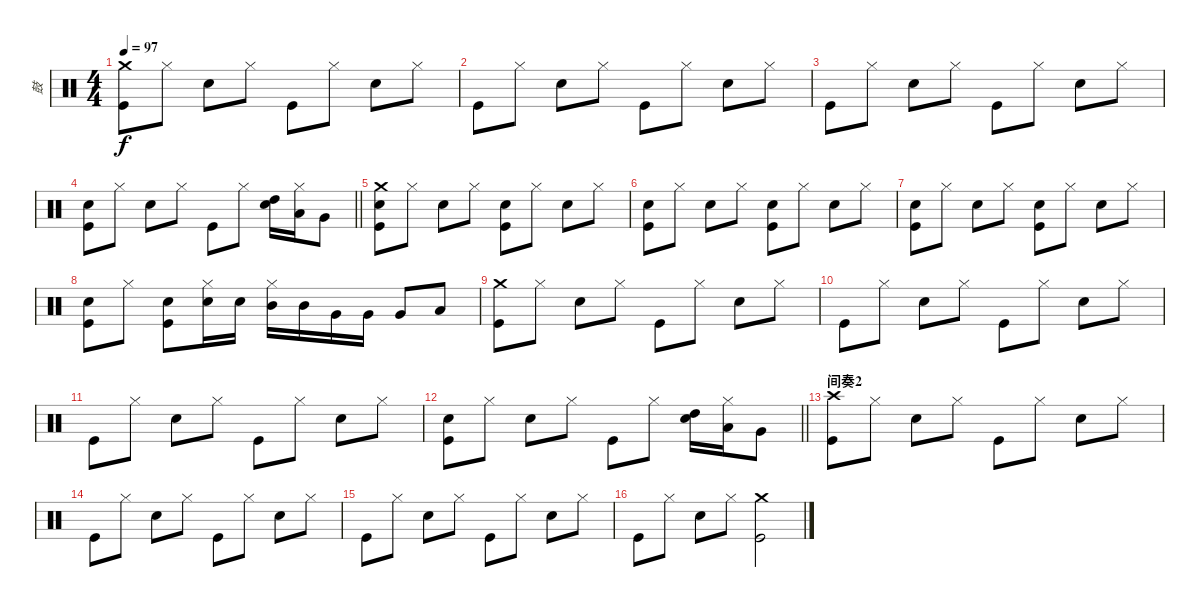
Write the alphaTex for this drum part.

\track ("鼓" "鼓") {instrument percussion}
\staff {score}
\articulation defaults
\ts (4 4)
\tempo 97
\clef neutral
\ks c
("Crash medium (hit)" "Kick (hit)").8{dy f} "Hi-Hat (closed)".8 "Electric Snare (hit)".8 "Hi-Hat (closed)".8 "Kick (hit)".8 "Hi-Hat (closed)".8 "Electric Snare (hit)".8 "Hi-Hat (closed)".8 |
"Kick (hit)".8 "Hi-Hat (closed)".8 "Electric Snare (hit)".8 "Hi-Hat (closed)".8 "Kick (hit)".8 "Hi-Hat (closed)".8 "Electric Snare (hit)".8 "Hi-Hat (closed)".8 |
"Kick (hit)".8 "Hi-Hat (closed)".8 "Electric Snare (hit)".8 "Hi-Hat (closed)".8 "Kick (hit)".8 "Hi-Hat (closed)".8 "Electric Snare (hit)".8 "Hi-Hat (closed)".8 |
\barLineRight lightlight
("Electric Snare (hit)" "Kick (hit)").8 "Hi-Hat (closed)".8 "Electric Snare (hit)".8 "Hi-Hat (closed)".8 "Kick (hit)".8 "Hi-Hat (closed)".8 ("High Tom (hit)" "Electric Snare (hit)").16 ("Low Tom (hit)" "Hi-Hat (closed)").16 "Very Low Tom (hit)".8 |
("Crash medium (hit)" "Electric Snare (hit)" "Kick (hit)").8{volume 16} "Hi-Hat (closed)".8 "Electric Snare (hit)".8{volume 16} "Hi-Hat (closed)".8 ("Electric Snare (hit)" "Kick (hit)").8{volume 16} "Hi-Hat (closed)".8 "Electric Snare (hit)".8{volume 16} "Hi-Hat (closed)".8 |
("Electric Snare (hit)" "Kick (hit)").8 "Hi-Hat (closed)".8 "Electric Snare (hit)".8 "Hi-Hat (closed)".8 ("Electric Snare (hit)" "Kick (hit)").8 "Hi-Hat (closed)".8 "Electric Snare (hit)".8 "Hi-Hat (closed)".8 |
("Electric Snare (hit)" "Kick (hit)").8 "Hi-Hat (closed)".8 "Electric Snare (hit)".8 "Hi-Hat (closed)".8 ("Electric Snare (hit)" "Kick (hit)").8 "Hi-Hat (closed)".8 "Electric Snare (hit)".8 "Hi-Hat (closed)".8 |
("Electric Snare (hit)" "Kick (hit)").8 "Hi-Hat (closed)".8 ("Electric Snare (hit)" "Kick (hit)").8 ("Hi-Hat (closed)" "Electric Snare (hit)").16 "Electric Snare (hit)".16 ("Mid Tom (hit)" "Hi-Hat (closed)").16 "Mid Tom (hit)".16 "Very Low Tom (hit)".16 "Very Low Tom (hit)".16 "Very Low Tom (hit)".8 "Low Floor Tom (hit)".8 |
("Crash medium (hit)" "Kick (hit)").8 "Hi-Hat (closed)".8 "Electric Snare (hit)".8 "Hi-Hat (closed)".8 "Kick (hit)".8 "Hi-Hat (closed)".8 "Electric Snare (hit)".8 "Hi-Hat (closed)".8 |
"Kick (hit)".8 "Hi-Hat (closed)".8 "Electric Snare (hit)".8 "Hi-Hat (closed)".8 "Kick (hit)".8 "Hi-Hat (closed)".8 "Electric Snare (hit)".8 "Hi-Hat (closed)".8 |
"Kick (hit)".8 "Hi-Hat (closed)".8 "Electric Snare (hit)".8 "Hi-Hat (closed)".8 "Kick (hit)".8 "Hi-Hat (closed)".8 "Electric Snare (hit)".8 "Hi-Hat (closed)".8 |
\barLineRight lightlight
("Electric Snare (hit)" "Kick (hit)").8 "Hi-Hat (closed)".8 "Electric Snare (hit)".8 "Hi-Hat (closed)".8 "Kick (hit)".8 "Hi-Hat (closed)".8 ("High Tom (hit)" "Electric Snare (hit)").16 ("Low Tom (hit)" "Hi-Hat (closed)").16 "Very Low Tom (hit)".8 |
\section ("" "间奏2")
("Crash high (hit)" "Kick (hit)").8 "Hi-Hat (closed)".8 "Electric Snare (hit)".8 "Hi-Hat (closed)".8 "Kick (hit)".8 "Hi-Hat (closed)".8 "Electric Snare (hit)".8 "Hi-Hat (closed)".8 |
"Kick (hit)".8 "Hi-Hat (closed)".8 "Electric Snare (hit)".8 "Hi-Hat (closed)".8 "Kick (hit)".8 "Hi-Hat (closed)".8 "Electric Snare (hit)".8 "Hi-Hat (closed)".8 |
"Kick (hit)".8 "Hi-Hat (closed)".8 "Electric Snare (hit)".8 "Hi-Hat (closed)".8 "Kick (hit)".8 "Hi-Hat (closed)".8 "Electric Snare (hit)".8 "Hi-Hat (closed)".8 |
"Kick (hit)".8 "Hi-Hat (closed)".8 "Electric Snare (hit)".8 "Hi-Hat (closed)".8 ("Crash medium (hit)" "Kick (hit)").2
